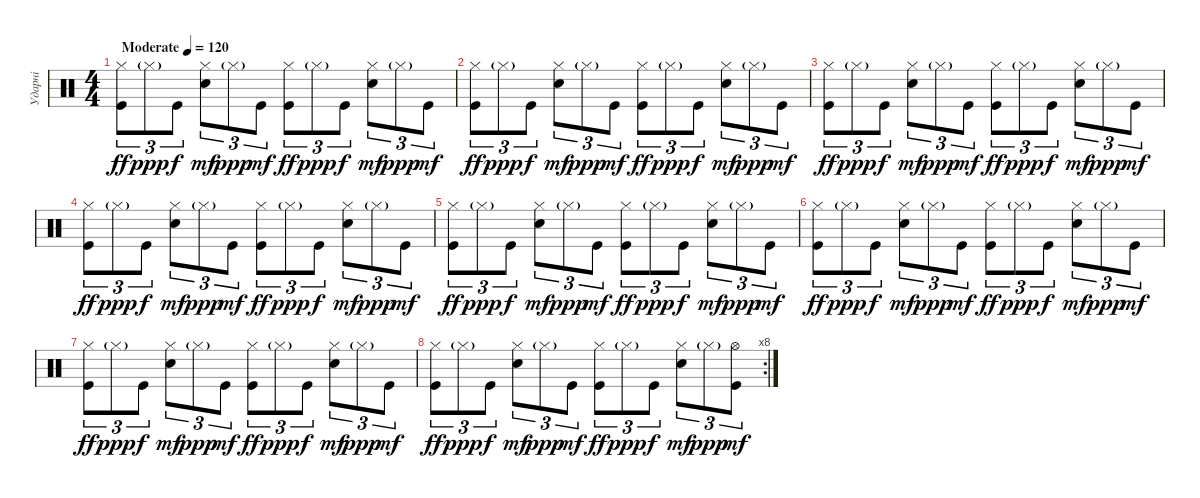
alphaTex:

\track ("Ударні" "Ударні") {instrument percussion}
\staff {score}
\articulation defaults
\ts (4 4)
\tempo (120 "Moderate")
\clef neutral
\ks c
("Hi-Hat (closed)" "Kick (hit)").8{tu (3 2) dy ff} "Hi-Hat (closed)"{g}.8{tu (3 2) dy ppp} "Kick (hit)".8{tu (3 2) dy f} ("Hi-Hat (closed)" "Snare (hit) 2").8{tu (3 2) dy mf} "Hi-Hat (closed)"{g}.8{tu (3 2) dy ppp} "Kick (hit)".8{tu (3 2) dy mf} ("Hi-Hat (closed)" "Kick (hit)").8{tu (3 2) dy ff} "Hi-Hat (closed)"{g}.8{tu (3 2) dy ppp} "Kick (hit)".8{tu (3 2) dy f} ("Hi-Hat (closed)" "Snare (hit) 2").8{tu (3 2) dy mf} "Hi-Hat (closed)"{g}.8{tu (3 2) dy ppp} "Kick (hit)".8{tu (3 2) dy mf} |
("Hi-Hat (closed)" "Kick (hit)").8{tu (3 2) dy ff} "Hi-Hat (closed)"{g}.8{tu (3 2) dy ppp} "Kick (hit)".8{tu (3 2) dy f} ("Hi-Hat (closed)" "Snare (hit) 2").8{tu (3 2) dy mf} "Hi-Hat (closed)"{g}.8{tu (3 2) dy ppp} "Kick (hit)".8{tu (3 2) dy mf} ("Hi-Hat (closed)" "Kick (hit)").8{tu (3 2) dy ff} "Hi-Hat (closed)"{g}.8{tu (3 2) dy ppp} "Kick (hit)".8{tu (3 2) dy f} ("Hi-Hat (closed)" "Snare (hit) 2").8{tu (3 2) dy mf} "Hi-Hat (closed)"{g}.8{tu (3 2) dy ppp} "Kick (hit)".8{tu (3 2) dy mf} |
("Hi-Hat (closed)" "Kick (hit)").8{tu (3 2) dy ff} "Hi-Hat (closed)"{g}.8{tu (3 2) dy ppp} "Kick (hit)".8{tu (3 2) dy f} ("Hi-Hat (closed)" "Snare (hit) 2").8{tu (3 2) dy mf} "Hi-Hat (closed)"{g}.8{tu (3 2) dy ppp} "Kick (hit)".8{tu (3 2) dy mf} ("Hi-Hat (closed)" "Kick (hit)").8{tu (3 2) dy ff} "Hi-Hat (closed)"{g}.8{tu (3 2) dy ppp} "Kick (hit)".8{tu (3 2) dy f} ("Hi-Hat (closed)" "Snare (hit) 2").8{tu (3 2) dy mf} "Hi-Hat (closed)"{g}.8{tu (3 2) dy ppp} "Kick (hit)".8{tu (3 2) dy mf} |
("Hi-Hat (closed)" "Kick (hit)").8{tu (3 2) dy ff} "Hi-Hat (closed)"{g}.8{tu (3 2) dy ppp} "Kick (hit)".8{tu (3 2) dy f} ("Hi-Hat (closed)" "Snare (hit) 2").8{tu (3 2) dy mf} "Hi-Hat (closed)"{g}.8{tu (3 2) dy ppp} "Kick (hit)".8{tu (3 2) dy mf} ("Hi-Hat (closed)" "Kick (hit)").8{tu (3 2) dy ff} "Hi-Hat (closed)"{g}.8{tu (3 2) dy ppp} "Kick (hit)".8{tu (3 2) dy f} ("Hi-Hat (closed)" "Snare (hit) 2").8{tu (3 2) dy mf} "Hi-Hat (closed)"{g}.8{tu (3 2) dy ppp} "Kick (hit)".8{tu (3 2) dy mf} |
("Hi-Hat (closed)" "Kick (hit)").8{tu (3 2) dy ff} "Hi-Hat (closed)"{g}.8{tu (3 2) dy ppp} "Kick (hit)".8{tu (3 2) dy f} ("Hi-Hat (closed)" "Snare (hit) 2").8{tu (3 2) dy mf} "Hi-Hat (closed)"{g}.8{tu (3 2) dy ppp} "Kick (hit)".8{tu (3 2) dy mf} ("Hi-Hat (closed)" "Kick (hit)").8{tu (3 2) dy ff} "Hi-Hat (closed)"{g}.8{tu (3 2) dy ppp} "Kick (hit)".8{tu (3 2) dy f} ("Hi-Hat (closed)" "Snare (hit) 2").8{tu (3 2) dy mf} "Hi-Hat (closed)"{g}.8{tu (3 2) dy ppp} "Kick (hit)".8{tu (3 2) dy mf} |
("Hi-Hat (closed)" "Kick (hit)").8{tu (3 2) dy ff} "Hi-Hat (closed)"{g}.8{tu (3 2) dy ppp} "Kick (hit)".8{tu (3 2) dy f} ("Hi-Hat (closed)" "Snare (hit) 2").8{tu (3 2) dy mf} "Hi-Hat (closed)"{g}.8{tu (3 2) dy ppp} "Kick (hit)".8{tu (3 2) dy mf} ("Hi-Hat (closed)" "Kick (hit)").8{tu (3 2) dy ff} "Hi-Hat (closed)"{g}.8{tu (3 2) dy ppp} "Kick (hit)".8{tu (3 2) dy f} ("Hi-Hat (closed)" "Snare (hit) 2").8{tu (3 2) dy mf} "Hi-Hat (closed)"{g}.8{tu (3 2) dy ppp} "Kick (hit)".8{tu (3 2) dy mf} |
("Hi-Hat (closed)" "Kick (hit)").8{tu (3 2) dy ff} "Hi-Hat (closed)"{g}.8{tu (3 2) dy ppp} "Kick (hit)".8{tu (3 2) dy f} ("Hi-Hat (closed)" "Snare (hit) 2").8{tu (3 2) dy mf} "Hi-Hat (closed)"{g}.8{tu (3 2) dy ppp} "Kick (hit)".8{tu (3 2) dy mf} ("Hi-Hat (closed)" "Kick (hit)").8{tu (3 2) dy ff} "Hi-Hat (closed)"{g}.8{tu (3 2) dy ppp} "Kick (hit)".8{tu (3 2) dy f} ("Hi-Hat (closed)" "Snare (hit) 2").8{tu (3 2) dy mf} "Hi-Hat (closed)"{g}.8{tu (3 2) dy ppp} "Kick (hit)".8{tu (3 2) dy mf} |
\rc 8
("Hi-Hat (closed)" "Kick (hit)").8{tu (3 2) dy ff} "Hi-Hat (closed)"{g}.8{tu (3 2) dy ppp} "Kick (hit)".8{tu (3 2) dy f} ("Hi-Hat (closed)" "Snare (hit) 2").8{tu (3 2) dy mf} "Hi-Hat (closed)"{g}.8{tu (3 2) dy ppp} "Kick (hit)".8{tu (3 2) dy mf} ("Hi-Hat (closed)" "Kick (hit)").8{tu (3 2) dy ff} "Hi-Hat (closed)"{g}.8{tu (3 2) dy ppp} "Kick (hit)".8{tu (3 2) dy f} ("Hi-Hat (closed)" "Snare (hit) 2").8{tu (3 2) dy mf} "Hi-Hat (closed)"{g}.8{tu (3 2) dy ppp} ("Hi-Hat (open)" "Kick (hit)").8{tu (3 2) dy mf}
